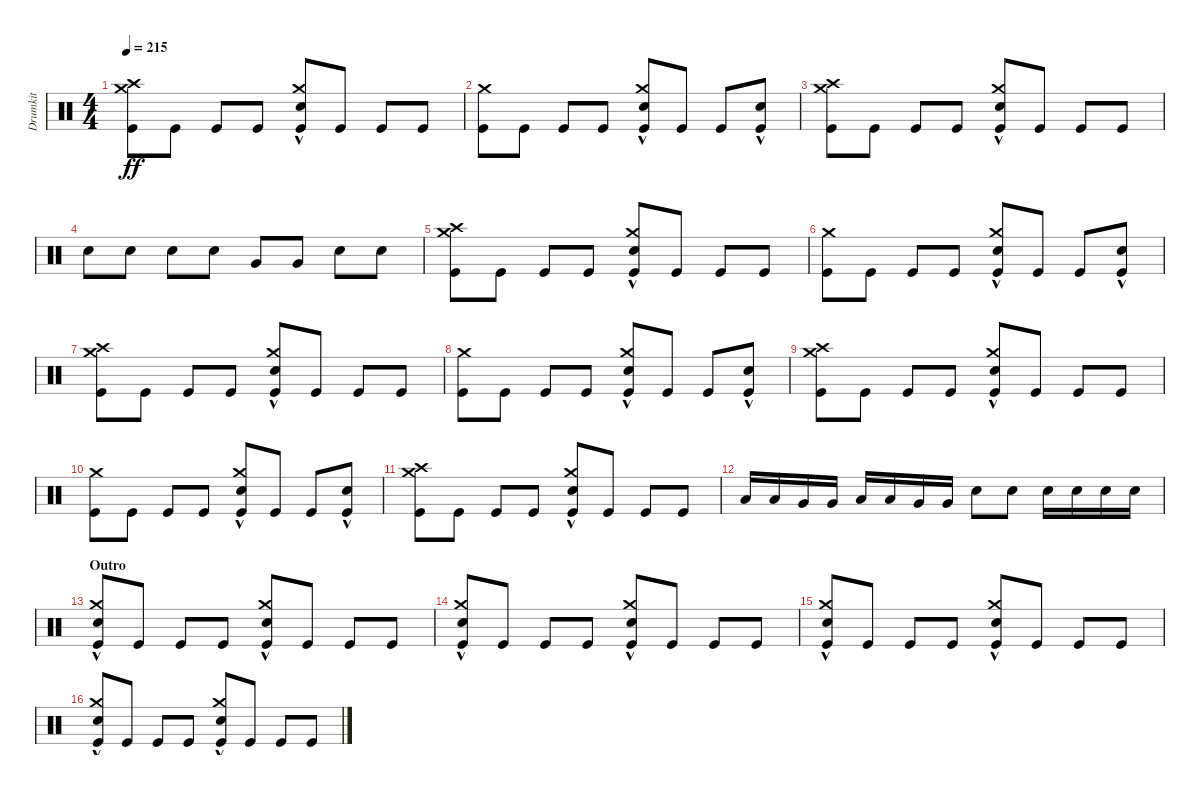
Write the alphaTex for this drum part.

\track ("Drumkit" "Drumkit") {instrument percussion}
\staff {score}
\articulation defaults
\ts (4 4)
\tempo 215
\clef neutral
\ks c
("Kick (hit)" "Crash medium (hit)" "Crash high (hit)").8{dy ff} "Kick (hit)".8 "Kick (hit)".8 "Kick (hit)".8 ("Kick (hit)" "Crash medium (hit)" "Snare (hit) 2"{hac}).8 "Kick (hit)".8 "Kick (hit)".8 "Kick (hit)".8 |
("Kick (hit)" "Crash medium (hit)").8 "Kick (hit)".8 "Kick (hit)".8 "Kick (hit)".8 ("Kick (hit)" "Crash medium (hit)" "Snare (hit) 2"{hac}).8 "Kick (hit)".8 "Kick (hit)".8 ("Kick (hit)" "Snare (hit) 2"{hac}).8 |
("Kick (hit)" "Crash medium (hit)" "Crash high (hit)").8 "Kick (hit)".8 "Kick (hit)".8 "Kick (hit)".8 ("Kick (hit)" "Crash medium (hit)" "Snare (hit) 2"{hac}).8 "Kick (hit)".8 "Kick (hit)".8 "Kick (hit)".8 |
"Snare (hit) 2".8 "Snare (hit) 2".8 "Snare (hit) 2".8 "Snare (hit) 2".8 "Very Low Tom (hit)".8 "Very Low Tom (hit)".8 "Snare (hit) 2".8 "Snare (hit) 2".8 |
("Kick (hit)" "Crash medium (hit)" "Crash high (hit)").8 "Kick (hit)".8 "Kick (hit)".8 "Kick (hit)".8 ("Kick (hit)" "Crash medium (hit)" "Snare (hit) 2"{hac}).8 "Kick (hit)".8 "Kick (hit)".8 "Kick (hit)".8 |
("Kick (hit)" "Crash medium (hit)").8 "Kick (hit)".8 "Kick (hit)".8 "Kick (hit)".8 ("Kick (hit)" "Crash medium (hit)" "Snare (hit) 2"{hac}).8 "Kick (hit)".8 "Kick (hit)".8 ("Kick (hit)" "Snare (hit) 2"{hac}).8 |
("Kick (hit)" "Crash medium (hit)" "Crash high (hit)").8 "Kick (hit)".8 "Kick (hit)".8 "Kick (hit)".8 ("Kick (hit)" "Crash medium (hit)" "Snare (hit) 2"{hac}).8 "Kick (hit)".8 "Kick (hit)".8 "Kick (hit)".8 |
("Kick (hit)" "Crash medium (hit)").8 "Kick (hit)".8 "Kick (hit)".8 "Kick (hit)".8 ("Kick (hit)" "Crash medium (hit)" "Snare (hit) 2"{hac}).8 "Kick (hit)".8 "Kick (hit)".8 ("Kick (hit)" "Snare (hit) 2"{hac}).8 |
("Kick (hit)" "Crash medium (hit)" "Crash high (hit)").8 "Kick (hit)".8 "Kick (hit)".8 "Kick (hit)".8 ("Kick (hit)" "Crash medium (hit)" "Snare (hit) 2"{hac}).8 "Kick (hit)".8 "Kick (hit)".8 "Kick (hit)".8 |
("Kick (hit)" "Crash medium (hit)").8 "Kick (hit)".8 "Kick (hit)".8 "Kick (hit)".8 ("Kick (hit)" "Crash medium (hit)" "Snare (hit) 2"{hac}).8 "Kick (hit)".8 "Kick (hit)".8 ("Kick (hit)" "Snare (hit) 2"{hac}).8 |
("Kick (hit)" "Crash medium (hit)" "Crash high (hit)").8 "Kick (hit)".8 "Kick (hit)".8 "Kick (hit)".8 ("Kick (hit)" "Crash medium (hit)" "Snare (hit) 2"{hac}).8 "Kick (hit)".8 "Kick (hit)".8 "Kick (hit)".8 |
"Low Floor Tom (hit)".16 "Low Floor Tom (hit)".16 "Very Low Tom (hit)".16 "Very Low Tom (hit)".16 "Low Tom (hit)".16 "Low Tom (hit)".16 "Very Low Tom (hit)".16 "Very Low Tom (hit)".16 "Snare (hit) 2".8 "Snare (hit) 2".8 "Snare (hit) 2".16 "Snare (hit) 2".16 "Snare (hit) 2".16 "Snare (hit) 2".16 |
\section ("" "Outro")
("Kick (hit)" "Crash medium (hit)" "Snare (hit) 2"{hac}).8 "Kick (hit)".8 "Kick (hit)".8 "Kick (hit)".8 ("Kick (hit)" "Crash medium (hit)" "Snare (hit) 2"{hac}).8 "Kick (hit)".8 "Kick (hit)".8 "Kick (hit)".8 |
("Kick (hit)" "Crash medium (hit)" "Snare (hit) 2"{hac}).8 "Kick (hit)".8 "Kick (hit)".8 "Kick (hit)".8 ("Kick (hit)" "Crash medium (hit)" "Snare (hit) 2"{hac}).8 "Kick (hit)".8 "Kick (hit)".8 "Kick (hit)".8 |
("Kick (hit)" "Crash medium (hit)" "Snare (hit) 2"{hac}).8 "Kick (hit)".8 "Kick (hit)".8 "Kick (hit)".8 ("Kick (hit)" "Crash medium (hit)" "Snare (hit) 2"{hac}).8 "Kick (hit)".8 "Kick (hit)".8 "Kick (hit)".8 |
("Kick (hit)" "Crash medium (hit)" "Snare (hit) 2"{hac}).8 "Kick (hit)".8 "Kick (hit)".8 "Kick (hit)".8 ("Kick (hit)" "Crash medium (hit)" "Snare (hit) 2"{hac}).8 "Kick (hit)".8 "Kick (hit)".8 "Kick (hit)".8
